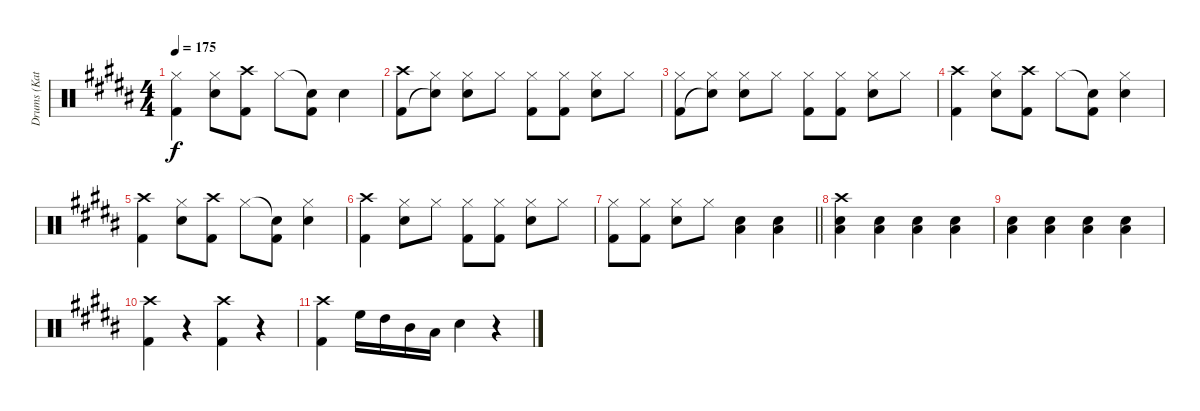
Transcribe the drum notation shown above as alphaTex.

\track ("Drums (Katsuji)" "Drums (Kat") {instrument percussion}
\staff {score}
\articulation defaults
\ts (4 4)
\tempo 175
\clef neutral
\ks b
("Hi-Hat (closed)" "Kick (hit) 2").4{dy f} ("Hi-Hat (closed)" "Snare (hit) 2").8 ("Crash high (hit)" "Kick (hit) 2").8 "Hi-Hat (closed)".8 ("Snare (hit)"{t} "Kick (hit) 2").8 "Snare (hit) 2".4 |
("Crash high (hit)" "Kick (hit) 2").8 ("Hi-Hat (closed)" "Snare (hit)"{t}).8 ("Hi-Hat (closed)" "Snare (hit) 2").8 "Hi-Hat (closed)".8 ("Hi-Hat (closed)" "Kick (hit) 2").8 ("Hi-Hat (closed)" "Kick (hit) 2").8 ("Hi-Hat (closed)" "Snare (hit) 2").8 "Hi-Hat (closed)".8 |
("Hi-Hat (closed)" "Kick (hit) 2").8 ("Hi-Hat (closed)" "Snare (hit)"{t}).8 ("Hi-Hat (closed)" "Snare (hit) 2").8 "Hi-Hat (closed)".8 ("Hi-Hat (closed)" "Kick (hit) 2").8 ("Hi-Hat (closed)" "Kick (hit) 2").8 ("Hi-Hat (closed)" "Snare (hit) 2").8 "Hi-Hat (closed)".8 |
("Crash high (hit)" "Kick (hit) 2").4 ("Hi-Hat (closed)" "Snare (hit) 2").8 ("Crash high (hit)" "Kick (hit) 2").8 "Hi-Hat (closed)".8 ("Snare (hit)"{t} "Kick (hit) 2").8 ("Hi-Hat (closed)" "Snare (hit) 2").4 |
("Crash high (hit)" "Kick (hit) 2").4 ("Hi-Hat (closed)" "Snare (hit) 2").8 ("Crash high (hit)" "Kick (hit) 2").8 "Hi-Hat (closed)".8 ("Snare (hit)"{t} "Kick (hit) 2").8 ("Hi-Hat (closed)" "Snare (hit) 2").4 |
("Crash high (hit)" "Kick (hit) 2").4 ("Hi-Hat (closed)" "Snare (hit) 2").8 "Hi-Hat (closed)".8 ("Hi-Hat (closed)" "Kick (hit) 2").8 ("Hi-Hat (closed)" "Kick (hit) 2").8 ("Hi-Hat (closed)" "Snare (hit) 2").8 "Hi-Hat (closed)".8 |
\barLineRight lightlight
("Hi-Hat (closed)" "Kick (hit) 2").8 ("Hi-Hat (closed)" "Kick (hit) 2").8 ("Hi-Hat (closed)" "Snare (hit) 2").8 "Hi-Hat (closed)".8 ("Snare (hit) 2" "Low Tom (hit)").4 ("Snare (hit) 2" "Low Tom (hit)").4 |
("Crash high (hit)" "Snare (hit) 2" "Low Tom (hit)").4 ("Snare (hit) 2" "Low Tom (hit)").4 ("Snare (hit) 2" "Low Tom (hit)").4 ("Snare (hit) 2" "Low Tom (hit)").4 |
("Snare (hit) 2" "Low Tom (hit)").4 ("Snare (hit) 2" "Low Tom (hit)").4 ("Snare (hit) 2" "Low Tom (hit)").4 ("Snare (hit) 2" "Low Tom (hit)").4 |
("Crash high (hit)" "Kick (hit) 2").4 r.4 ("Crash high (hit)" "Kick (hit) 2").4 r.4 |
("Crash high (hit)" "Kick (hit) 2").4 "High Floor Tom (hit)".16 "High Tom (hit)".16 "Mid Tom (hit)".16 "Low Tom (hit)".16 "Snare (hit) 2".4 r.4
